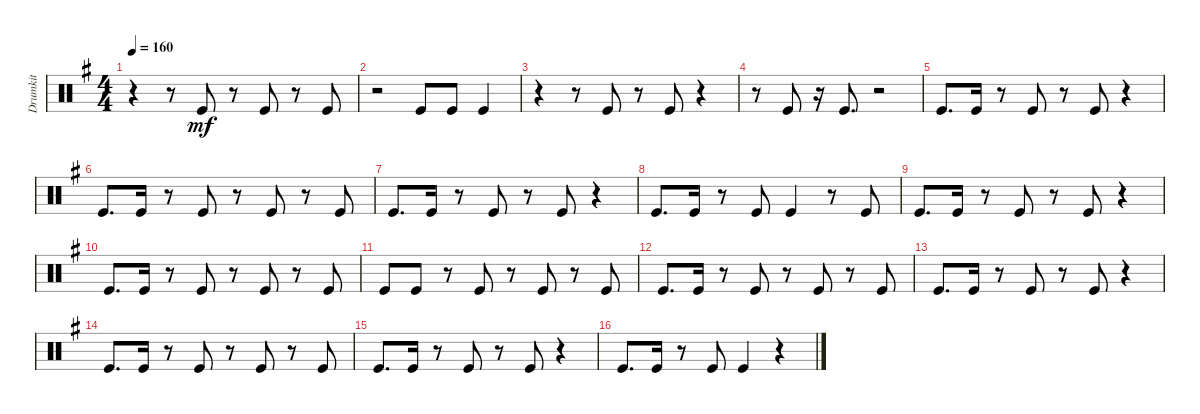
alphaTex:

\track ("Drumkit" "Drumkit") {instrument percussion}
\staff {score}
\articulation defaults
\ts (4 4)
\tempo 160
\clef neutral
\ks g
r.4{dy mf} r.8 "Kick (hit)".8 r.8 "Kick (hit)".8 r.8 "Kick (hit)".8 |
r.2 "Kick (hit)".8 "Kick (hit)".8 "Kick (hit)".4 |
r.4 r.8 "Kick (hit)".8 r.8 "Kick (hit)".8 r.4 |
r.8 "Kick (hit)".8 r.16 "Kick (hit)".8{d} r.2 |
"Kick (hit)".8{d} "Kick (hit)".16 r.8 "Kick (hit)".8 r.8 "Kick (hit)".8 r.4 |
"Kick (hit)".8{d} "Kick (hit)".16 r.8 "Kick (hit)".8 r.8 "Kick (hit)".8 r.8 "Kick (hit)".8 |
"Kick (hit)".8{d} "Kick (hit)".16 r.8 "Kick (hit)".8 r.8 "Kick (hit)".8 r.4 |
"Kick (hit)".8{d} "Kick (hit)".16 r.8 "Kick (hit)".8 "Kick (hit)".4 r.8 "Kick (hit)".8 |
"Kick (hit)".8{d} "Kick (hit)".16 r.8 "Kick (hit)".8 r.8 "Kick (hit)".8 r.4 |
"Kick (hit)".8{d} "Kick (hit)".16 r.8 "Kick (hit)".8 r.8 "Kick (hit)".8 r.8 "Kick (hit)".8 |
"Kick (hit)".8 "Kick (hit)".8 r.8 "Kick (hit)".8 r.8 "Kick (hit)".8 r.8 "Kick (hit)".8 |
"Kick (hit)".8{d} "Kick (hit)".16 r.8 "Kick (hit)".8 r.8 "Kick (hit)".8 r.8 "Kick (hit)".8 |
"Kick (hit)".8{d} "Kick (hit)".16 r.8 "Kick (hit)".8 r.8 "Kick (hit)".8 r.4 |
"Kick (hit)".8{d} "Kick (hit)".16 r.8 "Kick (hit)".8 r.8 "Kick (hit)".8 r.8 "Kick (hit)".8 |
"Kick (hit)".8{d} "Kick (hit)".16 r.8 "Kick (hit)".8 r.8 "Kick (hit)".8 r.4 |
"Kick (hit)".8{d} "Kick (hit)".16 r.8 "Kick (hit)".8 "Kick (hit)".4 r.4
